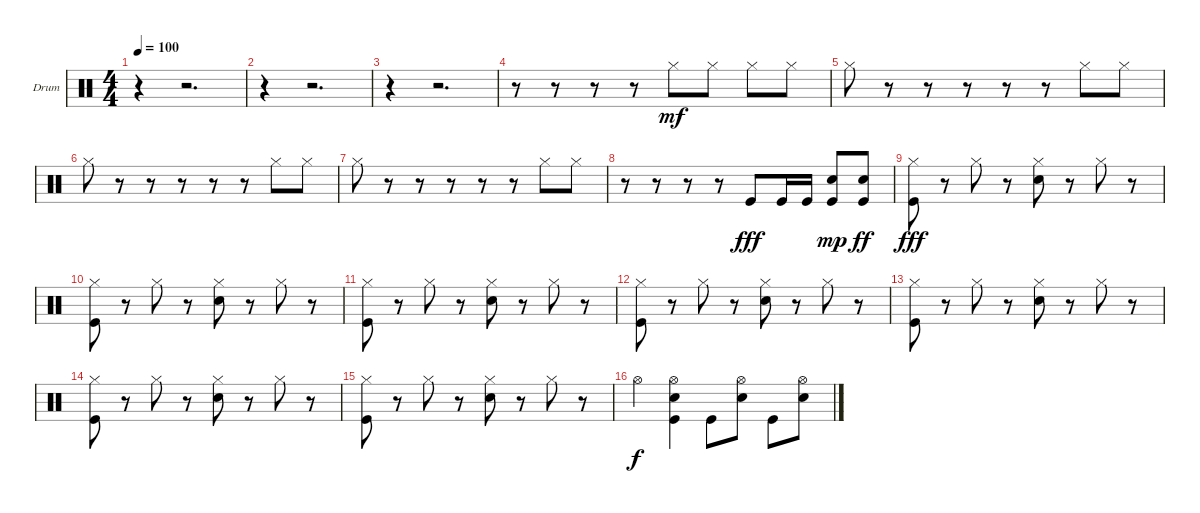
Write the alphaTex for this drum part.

\defaultSystemsLayout 4
\bracketExtendMode groupsimilarinstruments
\firstSystemTrackNameOrientation horizontal
\otherSystemsTrackNameOrientation horizontal
\track ("Drum" "Drum") {instrument percussion}
\staff {score}
\articulation defaults
\ts (4 4)
\tempo 100
\clef neutral
\scale
0.472222
\ks c
r.4{dy mf} r.2{d} |
\scale
0.263889 r.4 r.2{d} |
\scale
0.263889 r.4 r.2{d} |
\scale
0.333333 r.8 r.8 r.8 r.8 "Hi-Hat (closed)".8 "Hi-Hat (closed)".8 "Hi-Hat (closed)".8 "Hi-Hat (closed)".8 |
\scale
0.333333 "Hi-Hat (closed)".8 r.8 r.8 r.8 r.8 r.8 "Hi-Hat (closed)".8 "Hi-Hat (closed)".8 |
\scale
0.333333 "Hi-Hat (closed)".8 r.8 r.8 r.8 r.8 r.8 "Hi-Hat (closed)".8 "Hi-Hat (closed)".8 |
\scale
0.333333 "Hi-Hat (closed)".8 r.8 r.8 r.8 r.8 r.8 "Hi-Hat (closed)".8 "Hi-Hat (closed)".8 |
\scale
0.333333 r.8 r.8 r.8 r.8 "Kick (hit)".8{dy fff} "Kick (hit)".16 "Kick (hit)".16 ("Snare (hit) 2" "Kick (hit)").8{dy mp} ("Snare (hit) 2" "Kick (hit)").8{dy ff} |
\scale
0.333333 ("Hi-Hat (closed)" "Kick (hit)").8{dy fff} r.8 "Hi-Hat (closed)".8 r.8 ("Hi-Hat (closed)" "Snare (hit) 2").8 r.8 "Hi-Hat (closed)".8 r.8 |
\scale
0.333333 ("Hi-Hat (closed)" "Kick (hit)").8 r.8 "Hi-Hat (closed)".8 r.8 ("Hi-Hat (closed)" "Snare (hit) 2").8 r.8 "Hi-Hat (closed)".8 r.8 |
\scale
0.333333 ("Hi-Hat (closed)" "Kick (hit)").8 r.8 "Hi-Hat (closed)".8 r.8 ("Hi-Hat (closed)" "Snare (hit) 2").8 r.8 "Hi-Hat (closed)".8 r.8 |
\scale
0.333333 ("Hi-Hat (closed)" "Kick (hit)").8 r.8 "Hi-Hat (closed)".8 r.8 ("Hi-Hat (closed)" "Snare (hit) 2").8 r.8 "Hi-Hat (closed)".8 r.8 |
\scale
0.333333 ("Hi-Hat (closed)" "Kick (hit)").8 r.8 "Hi-Hat (closed)".8 r.8 ("Hi-Hat (closed)" "Snare (hit) 2").8 r.8 "Hi-Hat (closed)".8 r.8 |
\scale
0.333333 ("Hi-Hat (closed)" "Kick (hit)").8 r.8 "Hi-Hat (closed)".8 r.8 ("Hi-Hat (closed)" "Snare (hit) 2").8 r.8 "Hi-Hat (closed)".8 r.8 |
\scale
0.333333 ("Hi-Hat (closed)" "Kick (hit)").8 r.8 "Hi-Hat (closed)".8 r.8 ("Hi-Hat (closed)" "Snare (hit) 2").8 r.8 "Hi-Hat (closed)".8 r.8 |
\scale
0.333333 "Hi-Hat (open)".4{dy f} ("Kick (hit)" "Snare (hit) 2" "Hi-Hat (open)").4 "Kick (hit)".8 ("Hi-Hat (open)" "Snare (hit) 2").8 "Kick (hit)".8 ("Snare (hit) 2" "Hi-Hat (open)").8
